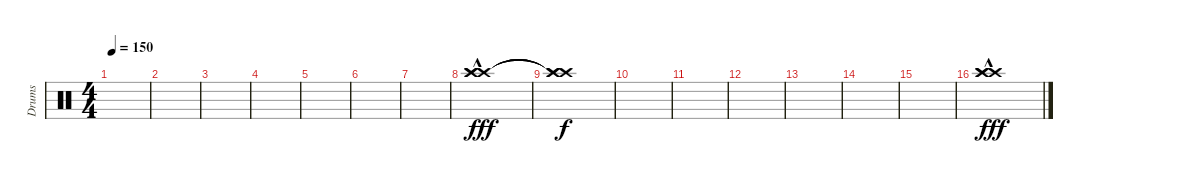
\track ("Drums" "Drums") {instrument percussion}
\staff {score}
\articulation defaults
\ts (4 4)
\tempo 150
\clef neutral
\ks c
|
|
|
|
|
|
|
("Crash high (hit)"{hac} "Crash high (hit)"{hac} "Crash high (hit)"{hac}).1{dy fff} |
("Crash high (hit)"{t} "Crash high (hit)"{t} "Crash high (hit)"{t}).1{dy f} |
|
|
|
|
|
|
("Crash high (hit)"{hac} "Crash high (hit)"{hac} "Crash high (hit)"{hac}).1{dy fff}
